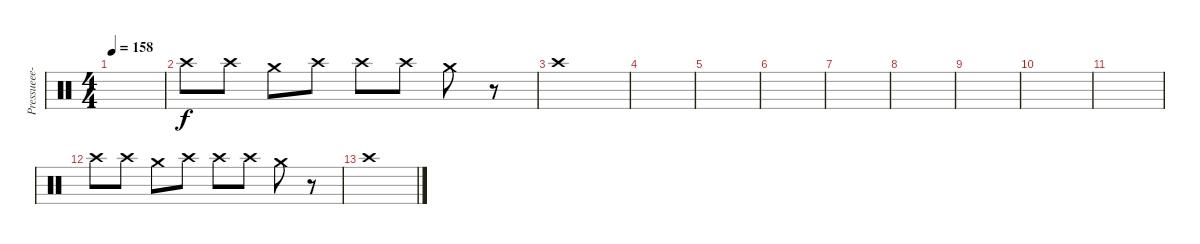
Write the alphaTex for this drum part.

\track ("" "Pressueee-") {instrument percussion}
\staff {score}
\articulation defaults
\ts (4 4)
\tempo 158
\clef neutral
\ks c
|
"Crash high (hit)".8{dy f} "Crash high (hit)".8 "Crash medium (hit)".8 "Crash high (hit)".8 "Crash high (hit)".8 "Crash high (hit)".8 "Crash medium (hit)".8 r.8 |
"Crash high (hit)".1 |
|
|
|
|
|
|
|
|
"Crash high (hit)".8 "Crash high (hit)".8 "Crash medium (hit)".8 "Crash high (hit)".8 "Crash high (hit)".8 "Crash high (hit)".8 "Crash medium (hit)".8 r.8 |
"Crash high (hit)".1
